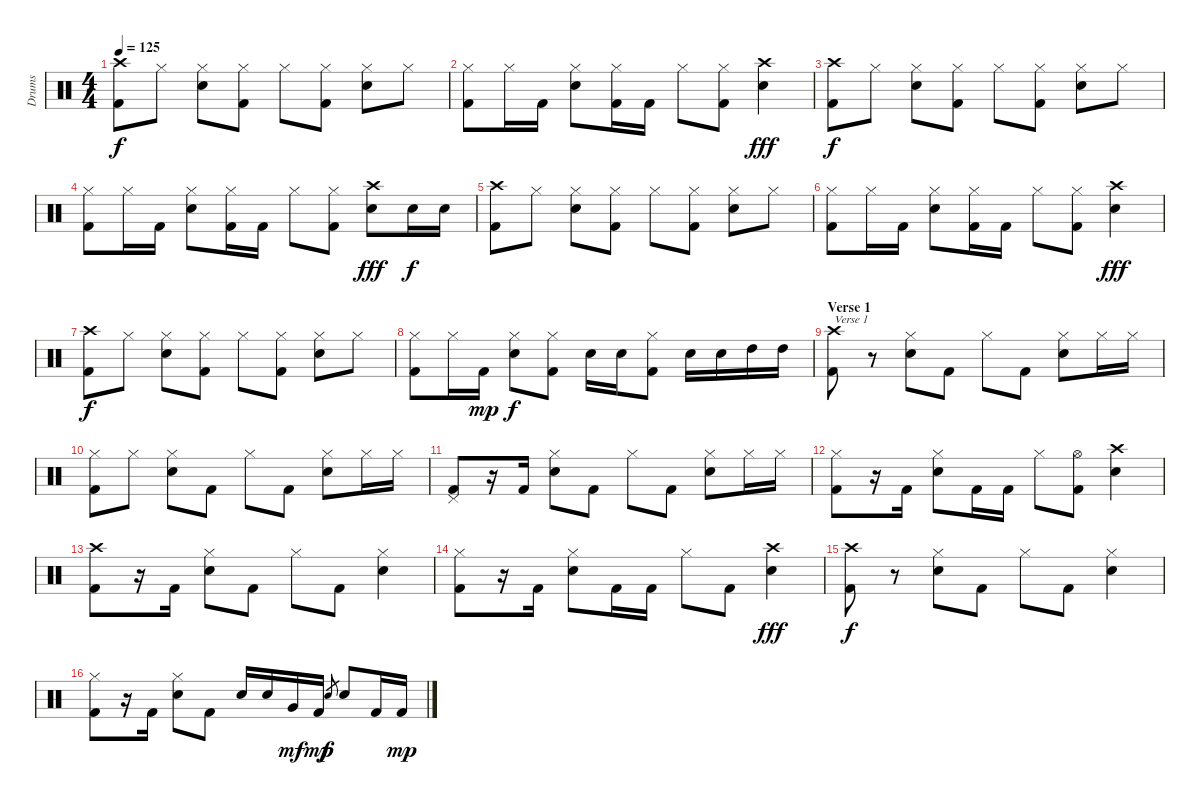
\track ("Drums" "Drums") {instrument percussion}
\staff {score}
\articulation defaults
\ts (4 4)
\tempo 125
\clef neutral
\ks c
("Crash high (hit)" "Kick (hit) 2").8{dy f} "Hi-Hat (closed)".8 ("Hi-Hat (closed)" "Electric Snare (hit)").8 ("Hi-Hat (closed)" "Kick (hit) 2").8 "Hi-Hat (closed)".8 ("Hi-Hat (closed)" "Kick (hit) 2").8 ("Hi-Hat (closed)" "Electric Snare (hit)").8 "Hi-Hat (closed)".8 |
("Hi-Hat (closed)" "Kick (hit) 2").8 "Hi-Hat (closed)".16 "Kick (hit) 2".16 ("Hi-Hat (closed)" "Electric Snare (hit)").8 ("Hi-Hat (closed)" "Kick (hit) 2").16 "Kick (hit) 2".16 "Hi-Hat (closed)".8 ("Hi-Hat (closed)" "Kick (hit) 2").8 ("Crash high (hit)" "Electric Snare (hit)").4{dy fff} |
("Crash high (hit)" "Kick (hit) 2").8{dy f} "Hi-Hat (closed)".8 ("Hi-Hat (closed)" "Electric Snare (hit)").8 ("Hi-Hat (closed)" "Kick (hit) 2").8 "Hi-Hat (closed)".8 ("Hi-Hat (closed)" "Kick (hit) 2").8 ("Hi-Hat (closed)" "Electric Snare (hit)").8 "Hi-Hat (closed)".8 |
("Hi-Hat (closed)" "Kick (hit) 2").8 "Hi-Hat (closed)".16 "Kick (hit) 2".16 ("Hi-Hat (closed)" "Electric Snare (hit)").8 ("Hi-Hat (closed)" "Kick (hit) 2").16 "Kick (hit) 2".16 "Hi-Hat (closed)".8 ("Hi-Hat (closed)" "Kick (hit) 2").8 ("Crash high (hit)" "Electric Snare (hit)").8{dy fff} "Electric Snare (hit)".16{dy f} "Electric Snare (hit)".16 |
("Crash high (hit)" "Kick (hit) 2").8 "Hi-Hat (closed)".8 ("Hi-Hat (closed)" "Electric Snare (hit)").8 ("Hi-Hat (closed)" "Kick (hit) 2").8 "Hi-Hat (closed)".8 ("Hi-Hat (closed)" "Kick (hit) 2").8 ("Hi-Hat (closed)" "Electric Snare (hit)").8 "Hi-Hat (closed)".8 |
("Hi-Hat (closed)" "Kick (hit) 2").8 "Hi-Hat (closed)".16 "Kick (hit) 2".16 ("Hi-Hat (closed)" "Electric Snare (hit)").8 ("Hi-Hat (closed)" "Kick (hit) 2").16 "Kick (hit) 2".16 "Hi-Hat (closed)".8 ("Hi-Hat (closed)" "Kick (hit) 2").8 ("Crash high (hit)" "Electric Snare (hit)").4{dy fff} |
("Crash high (hit)" "Kick (hit) 2").8{dy f} "Hi-Hat (closed)".8 ("Hi-Hat (closed)" "Electric Snare (hit)").8 ("Hi-Hat (closed)" "Kick (hit) 2").8 "Hi-Hat (closed)".8 ("Hi-Hat (closed)" "Kick (hit) 2").8 ("Hi-Hat (closed)" "Electric Snare (hit)").8 "Hi-Hat (closed)".8 |
("Hi-Hat (closed)" "Kick (hit) 2").8 "Hi-Hat (closed)".16 "Kick (hit) 2".16{dy mp} ("Hi-Hat (closed)" "Electric Snare (hit)").8{dy f} ("Hi-Hat (closed)" "Kick (hit) 2").8 "Electric Snare (hit)".16 "Electric Snare (hit)".16 ("Hi-Hat (closed)" "Kick (hit) 2").8 "Electric Snare (hit)".16 "Electric Snare (hit)".16 "High Tom (hit)".16 "High Tom (hit)".16 |
\section ("" "Verse 1")
("Crash high (hit)" "Kick (hit) 2").8{txt "Verse 1"} r.8 ("Hi-Hat (closed)" "Electric Snare (hit)").8 "Kick (hit) 2".8 "Hi-Hat (closed)".8 "Kick (hit) 2".8 ("Hi-Hat (closed)" "Electric Snare (hit)").8 "Hi-Hat (closed)".16 "Hi-Hat (closed)".16 |
("Hi-Hat (closed)" "Kick (hit) 2").8 "Hi-Hat (closed)".8 ("Hi-Hat (closed)" "Electric Snare (hit)").8 "Kick (hit) 2".8 "Hi-Hat (closed)".8 "Kick (hit) 2".8 ("Hi-Hat (closed)" "Electric Snare (hit)").8 "Hi-Hat (closed)".16 "Hi-Hat (closed)".16 |
("Pedal Hi-Hat (hit)" "Kick (hit) 2").8 r.16 "Kick (hit) 2".16 ("Hi-Hat (closed)" "Electric Snare (hit)").8 "Kick (hit) 2".8 "Hi-Hat (closed)".8 "Kick (hit) 2".8 ("Hi-Hat (closed)" "Electric Snare (hit)").8 "Hi-Hat (closed)".16 "Hi-Hat (closed)".16 |
("Hi-Hat (closed)" "Kick (hit) 2").8 r.16 "Kick (hit) 2".16 ("Hi-Hat (closed)" "Electric Snare (hit)").8 "Kick (hit) 2".16 "Kick (hit) 2".16 "Hi-Hat (closed)".8 ("Hi-Hat (open)" "Kick (hit) 2").8 ("Crash high (hit)" "Electric Snare (hit)").4 |
("Crash high (hit)" "Kick (hit) 2").8 r.16 "Kick (hit) 2".16 ("Hi-Hat (closed)" "Electric Snare (hit)").8 "Kick (hit) 2".8 "Hi-Hat (closed)".8 "Kick (hit) 2".8 ("Hi-Hat (closed)" "Electric Snare (hit)").4 |
("Hi-Hat (closed)" "Kick (hit) 2").8 r.16 "Kick (hit) 2".16 ("Hi-Hat (closed)" "Electric Snare (hit)").8 "Kick (hit) 2".16 "Kick (hit) 2".16 "Hi-Hat (closed)".8 "Kick (hit) 2".8 ("Crash high (hit)" "Electric Snare (hit)").4{dy fff} |
("Crash high (hit)" "Kick (hit) 2").8{dy f} r.8 ("Hi-Hat (closed)" "Electric Snare (hit)").8 "Kick (hit) 2".8 "Hi-Hat (closed)".8 "Kick (hit) 2".8 ("Hi-Hat (closed)" "Electric Snare (hit)").4 |
("Hi-Hat (closed)" "Kick (hit) 2").8 r.16 "Kick (hit) 2".16 ("Hi-Hat (closed)" "Electric Snare (hit)").8 "Kick (hit) 2".8 "Electric Snare (hit)".16 "Electric Snare (hit)".16 "Very Low Tom (hit)".16{dy mf} "Kick (hit) 2".16{dy mp} "Electric Snare (hit)".8{gr dy f} "Electric Snare (hit)".8 "Kick (hit) 2".16 "Kick (hit) 2".16{dy mp}
